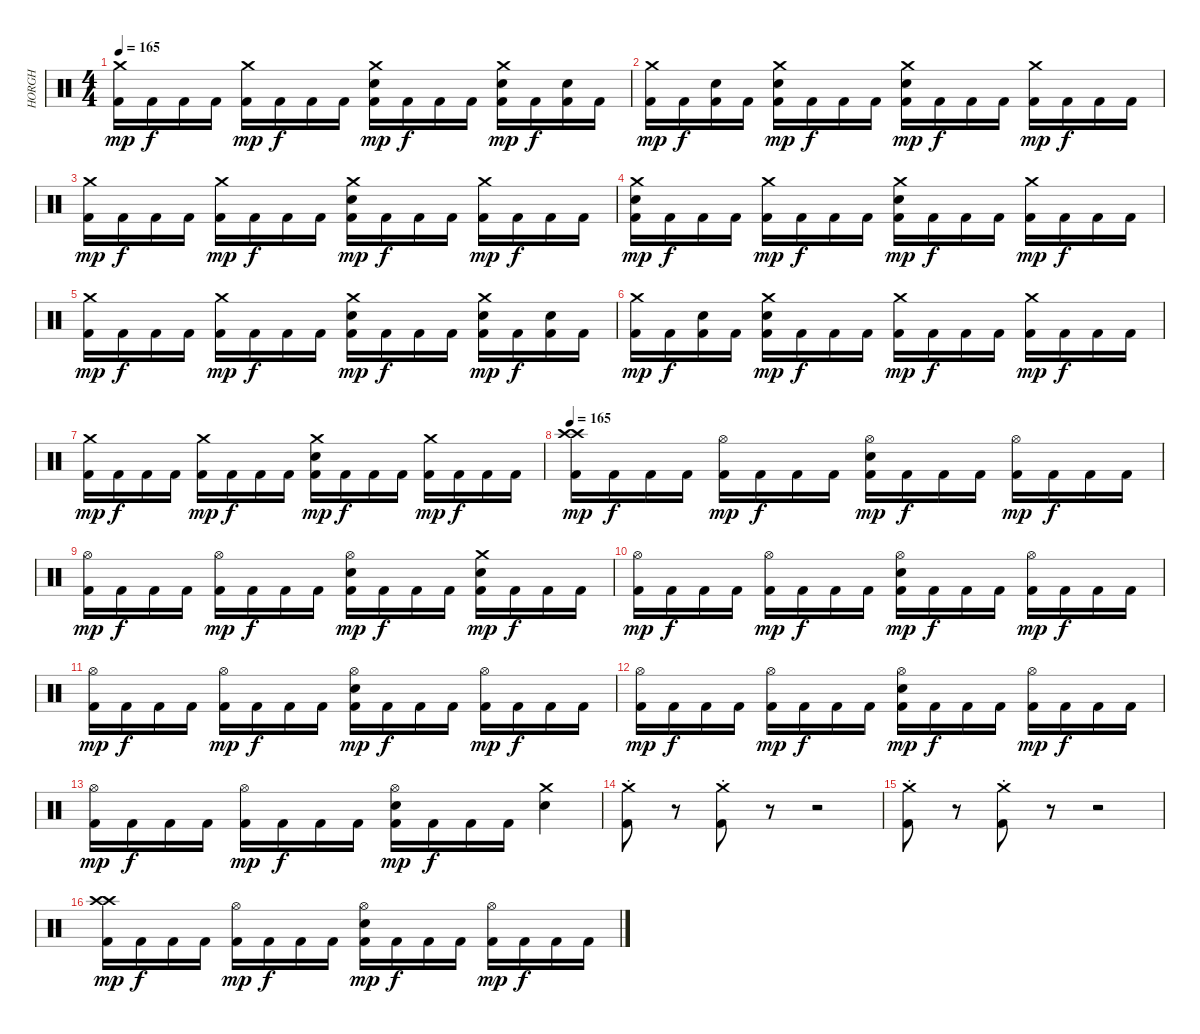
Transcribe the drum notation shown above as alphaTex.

\track ("HORGH" "HORGH") {instrument percussion}
\staff {score}
\articulation defaults
\ts (4 4)
\tempo 165
\clef neutral
\ks c
("Crash medium (hit)" "Kick (hit) 2").16{dy mp} "Kick (hit) 2".16{dy f} "Kick (hit) 2".16 "Kick (hit) 2".16 ("Crash medium (hit)" "Kick (hit) 2").16{dy mp} "Kick (hit) 2".16{dy f} "Kick (hit) 2".16 "Kick (hit) 2".16 ("Crash medium (hit)" "Electric Snare (hit)" "Kick (hit) 2").16{dy mp} "Kick (hit) 2".16{dy f} "Kick (hit) 2".16 "Kick (hit) 2".16 ("Crash medium (hit)" "Electric Snare (hit)" "Kick (hit) 2").16{dy mp} "Kick (hit) 2".16{dy f} ("Electric Snare (hit)" "Kick (hit) 2").16 "Kick (hit) 2".16 |
("Crash medium (hit)" "Kick (hit) 2").16{dy mp} "Kick (hit) 2".16{dy f} ("Electric Snare (hit)" "Kick (hit) 2").16 "Kick (hit) 2".16 ("Crash medium (hit)" "Electric Snare (hit)" "Kick (hit) 2").16{dy mp} "Kick (hit) 2".16{dy f} "Kick (hit) 2".16 "Kick (hit) 2".16 ("Crash medium (hit)" "Electric Snare (hit)" "Kick (hit) 2").16{dy mp} "Kick (hit) 2".16{dy f} "Kick (hit) 2".16 "Kick (hit) 2".16 ("Crash medium (hit)" "Kick (hit) 2").16{dy mp} "Kick (hit) 2".16{dy f} "Kick (hit) 2".16 "Kick (hit) 2".16 |
("Crash medium (hit)" "Kick (hit) 2").16{dy mp} "Kick (hit) 2".16{dy f} "Kick (hit) 2".16 "Kick (hit) 2".16 ("Crash medium (hit)" "Kick (hit) 2").16{dy mp} "Kick (hit) 2".16{dy f} "Kick (hit) 2".16 "Kick (hit) 2".16 ("Crash medium (hit)" "Electric Snare (hit)" "Kick (hit) 2").16{dy mp} "Kick (hit) 2".16{dy f} "Kick (hit) 2".16 "Kick (hit) 2".16 ("Crash medium (hit)" "Kick (hit) 2").16{dy mp} "Kick (hit) 2".16{dy f} "Kick (hit) 2".16 "Kick (hit) 2".16 |
("Crash medium (hit)" "Electric Snare (hit)" "Kick (hit) 2").16{dy mp} "Kick (hit) 2".16{dy f} "Kick (hit) 2".16 "Kick (hit) 2".16 ("Crash medium (hit)" "Kick (hit) 2").16{dy mp} "Kick (hit) 2".16{dy f} "Kick (hit) 2".16 "Kick (hit) 2".16 ("Crash medium (hit)" "Electric Snare (hit)" "Kick (hit) 2").16{dy mp} "Kick (hit) 2".16{dy f} "Kick (hit) 2".16 "Kick (hit) 2".16 ("Crash medium (hit)" "Kick (hit) 2").16{dy mp} "Kick (hit) 2".16{dy f} "Kick (hit) 2".16 "Kick (hit) 2".16 |
("Crash medium (hit)" "Kick (hit) 2").16{dy mp} "Kick (hit) 2".16{dy f} "Kick (hit) 2".16 "Kick (hit) 2".16 ("Crash medium (hit)" "Kick (hit) 2").16{dy mp} "Kick (hit) 2".16{dy f} "Kick (hit) 2".16 "Kick (hit) 2".16 ("Crash medium (hit)" "Electric Snare (hit)" "Kick (hit) 2").16{dy mp} "Kick (hit) 2".16{dy f} "Kick (hit) 2".16 "Kick (hit) 2".16 ("Crash medium (hit)" "Electric Snare (hit)" "Kick (hit) 2").16{dy mp} "Kick (hit) 2".16{dy f} ("Electric Snare (hit)" "Kick (hit) 2").16 "Kick (hit) 2".16 |
("Crash medium (hit)" "Kick (hit) 2").16{dy mp} "Kick (hit) 2".16{dy f} ("Electric Snare (hit)" "Kick (hit) 2").16 "Kick (hit) 2".16 ("Crash medium (hit)" "Electric Snare (hit)" "Kick (hit) 2").16{dy mp} "Kick (hit) 2".16{dy f} "Kick (hit) 2".16 "Kick (hit) 2".16 ("Crash medium (hit)" "Kick (hit) 2").16{dy mp} "Kick (hit) 2".16{dy f} "Kick (hit) 2".16 "Kick (hit) 2".16 ("Crash medium (hit)" "Kick (hit) 2").16{dy mp} "Kick (hit) 2".16{dy f} "Kick (hit) 2".16 "Kick (hit) 2".16 |
("Crash medium (hit)" "Kick (hit) 2").16{dy mp} "Kick (hit) 2".16{dy f} "Kick (hit) 2".16 "Kick (hit) 2".16 ("Crash medium (hit)" "Kick (hit) 2").16{dy mp} "Kick (hit) 2".16{dy f} "Kick (hit) 2".16 "Kick (hit) 2".16 ("Crash medium (hit)" "Electric Snare (hit)" "Kick (hit) 2").16{dy mp} "Kick (hit) 2".16{dy f} "Kick (hit) 2".16 "Kick (hit) 2".16 ("Crash medium (hit)" "Kick (hit) 2").16{dy mp} "Kick (hit) 2".16{dy f} "Kick (hit) 2".16 "Kick (hit) 2".16 |
\tempo 165
("Crash high (hit)" "Crash high (hit)" "Kick (hit) 2").16{dy mp} "Kick (hit) 2".16{dy f} "Kick (hit) 2".16 "Kick (hit) 2".16 ("Hi-Hat (open)" "Kick (hit) 2").16{dy mp} "Kick (hit) 2".16{dy f} "Kick (hit) 2".16 "Kick (hit) 2".16 ("Hi-Hat (open)" "Electric Snare (hit)" "Kick (hit) 2").16{dy mp} "Kick (hit) 2".16{dy f} "Kick (hit) 2".16 "Kick (hit) 2".16 ("Hi-Hat (open)" "Kick (hit) 2").16{dy mp} "Kick (hit) 2".16{dy f} "Kick (hit) 2".16 "Kick (hit) 2".16 |
("Hi-Hat (open)" "Kick (hit) 2").16{dy mp} "Kick (hit) 2".16{dy f} "Kick (hit) 2".16 "Kick (hit) 2".16 ("Hi-Hat (open)" "Kick (hit) 2").16{dy mp} "Kick (hit) 2".16{dy f} "Kick (hit) 2".16 "Kick (hit) 2".16 ("Hi-Hat (open)" "Electric Snare (hit)" "Kick (hit) 2").16{dy mp} "Kick (hit) 2".16{dy f} "Kick (hit) 2".16 "Kick (hit) 2".16 ("Crash medium (hit)" "Electric Snare (hit)" "Kick (hit) 2").16{dy mp} "Kick (hit) 2".16{dy f} "Kick (hit) 2".16 "Kick (hit) 2".16 |
("Hi-Hat (open)" "Kick (hit) 2").16{dy mp} "Kick (hit) 2".16{dy f} "Kick (hit) 2".16 "Kick (hit) 2".16 ("Hi-Hat (open)" "Kick (hit) 2").16{dy mp} "Kick (hit) 2".16{dy f} "Kick (hit) 2".16 "Kick (hit) 2".16 ("Hi-Hat (open)" "Electric Snare (hit)" "Kick (hit) 2").16{dy mp} "Kick (hit) 2".16{dy f} "Kick (hit) 2".16 "Kick (hit) 2".16 ("Hi-Hat (open)" "Kick (hit) 2").16{dy mp} "Kick (hit) 2".16{dy f} "Kick (hit) 2".16 "Kick (hit) 2".16 |
("Hi-Hat (open)" "Kick (hit) 2").16{dy mp} "Kick (hit) 2".16{dy f} "Kick (hit) 2".16 "Kick (hit) 2".16 ("Hi-Hat (open)" "Kick (hit) 2").16{dy mp} "Kick (hit) 2".16{dy f} "Kick (hit) 2".16 "Kick (hit) 2".16 ("Hi-Hat (open)" "Electric Snare (hit)" "Kick (hit) 2").16{dy mp} "Kick (hit) 2".16{dy f} "Kick (hit) 2".16 "Kick (hit) 2".16 ("Hi-Hat (open)" "Kick (hit) 2").16{dy mp} "Kick (hit) 2".16{dy f} "Kick (hit) 2".16 "Kick (hit) 2".16 |
("Hi-Hat (open)" "Kick (hit) 2").16{dy mp} "Kick (hit) 2".16{dy f} "Kick (hit) 2".16 "Kick (hit) 2".16 ("Hi-Hat (open)" "Kick (hit) 2").16{dy mp} "Kick (hit) 2".16{dy f} "Kick (hit) 2".16 "Kick (hit) 2".16 ("Hi-Hat (open)" "Electric Snare (hit)" "Kick (hit) 2").16{dy mp} "Kick (hit) 2".16{dy f} "Kick (hit) 2".16 "Kick (hit) 2".16 ("Hi-Hat (open)" "Kick (hit) 2").16{dy mp} "Kick (hit) 2".16{dy f} "Kick (hit) 2".16 "Kick (hit) 2".16 |
("Hi-Hat (open)" "Kick (hit) 2").16{dy mp} "Kick (hit) 2".16{dy f} "Kick (hit) 2".16 "Kick (hit) 2".16 ("Hi-Hat (open)" "Kick (hit) 2").16{dy mp} "Kick (hit) 2".16{dy f} "Kick (hit) 2".16 "Kick (hit) 2".16 ("Hi-Hat (open)" "Electric Snare (hit)" "Kick (hit) 2").16{dy mp} "Kick (hit) 2".16{dy f} "Kick (hit) 2".16 "Kick (hit) 2".16 ("Crash medium (hit)" "Electric Snare (hit)").4 |
("Crash medium (hit)"{st} "Kick (hit) 2").8 r.8 ("Crash medium (hit)"{st} "Kick (hit) 2").8 r.8 r.2 |
("Crash medium (hit)"{st} "Kick (hit) 2").8 r.8 ("Crash medium (hit)"{st} "Kick (hit) 2").8 r.8 r.2 |
("Crash high (hit)" "Crash high (hit)" "Kick (hit) 2").16{dy mp} "Kick (hit) 2".16{dy f} "Kick (hit) 2".16 "Kick (hit) 2".16 ("Hi-Hat (open)" "Kick (hit) 2").16{dy mp} "Kick (hit) 2".16{dy f} "Kick (hit) 2".16 "Kick (hit) 2".16 ("Hi-Hat (open)" "Electric Snare (hit)" "Kick (hit) 2").16{dy mp} "Kick (hit) 2".16{dy f} "Kick (hit) 2".16 "Kick (hit) 2".16 ("Hi-Hat (open)" "Kick (hit) 2").16{dy mp} "Kick (hit) 2".16{dy f} "Kick (hit) 2".16 "Kick (hit) 2".16
